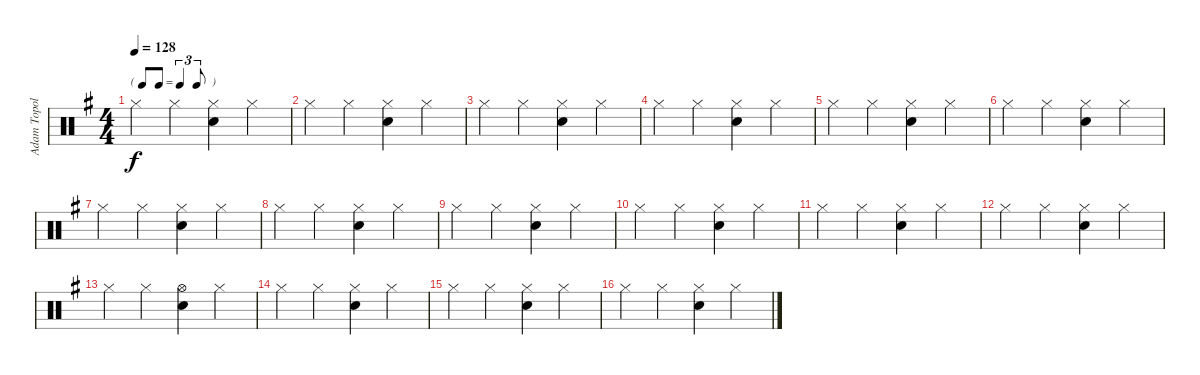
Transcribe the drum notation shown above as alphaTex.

\track ("Adam Topol" "Adam Topol") {instrument percussion}
\staff {score}
\articulation defaults
\ts (4 4)
\tf triplet8th
\tempo 128
\clef neutral
\ks g "Hi-Hat (closed)".4{dy f} "Hi-Hat (closed)".4
("Hi-Hat (closed)" "Snare (hit) 2").4 "Hi-Hat (closed)".4 |
"Hi-Hat (closed)".4 "Hi-Hat (closed)".4 ("Hi-Hat (closed)" "Snare (hit) 2").4 "Hi-Hat (closed)".4 |
"Hi-Hat (closed)".4 "Hi-Hat (closed)".4 ("Hi-Hat (closed)" "Snare (hit) 2").4 "Hi-Hat (closed)".4 |
"Hi-Hat (closed)".4 "Hi-Hat (closed)".4 ("Hi-Hat (closed)" "Snare (hit) 2").4 "Hi-Hat (closed)".4 |
"Hi-Hat (closed)".4 "Hi-Hat (closed)".4 ("Hi-Hat (closed)" "Snare (hit) 2").4 "Hi-Hat (closed)".4 |
"Hi-Hat (closed)".4 "Hi-Hat (closed)".4 ("Hi-Hat (closed)" "Snare (hit) 2").4 "Hi-Hat (closed)".4 |
"Hi-Hat (closed)".4 "Hi-Hat (closed)".4 ("Hi-Hat (closed)" "Snare (hit) 2").4 "Hi-Hat (closed)".4 |
"Hi-Hat (closed)".4 "Hi-Hat (closed)".4 ("Hi-Hat (closed)" "Snare (hit) 2").4 "Hi-Hat (closed)".4 |
"Hi-Hat (closed)".4 "Hi-Hat (closed)".4 ("Hi-Hat (closed)" "Snare (hit) 2").4 "Hi-Hat (closed)".4 |
"Hi-Hat (closed)".4 "Hi-Hat (closed)".4 ("Hi-Hat (closed)" "Snare (hit) 2").4 "Hi-Hat (closed)".4 |
"Hi-Hat (closed)".4 "Hi-Hat (closed)".4 ("Hi-Hat (closed)" "Snare (hit) 2").4 "Hi-Hat (closed)".4 |
"Hi-Hat (closed)".4 "Hi-Hat (closed)".4 ("Hi-Hat (closed)" "Snare (hit) 2").4 "Hi-Hat (closed)".4 |
"Hi-Hat (closed)".4 "Hi-Hat (closed)".4 ("Hi-Hat (open)" "Snare (hit) 2").4 "Hi-Hat (closed)".4 |
"Hi-Hat (closed)".4 "Hi-Hat (closed)".4 ("Hi-Hat (closed)" "Snare (hit) 2").4 "Hi-Hat (closed)".4 |
"Hi-Hat (closed)".4 "Hi-Hat (closed)".4 ("Hi-Hat (closed)" "Snare (hit) 2").4 "Hi-Hat (closed)".4 |
"Hi-Hat (closed)".4 "Hi-Hat (closed)".4 ("Hi-Hat (closed)" "Snare (hit) 2").4 "Hi-Hat (closed)".4
